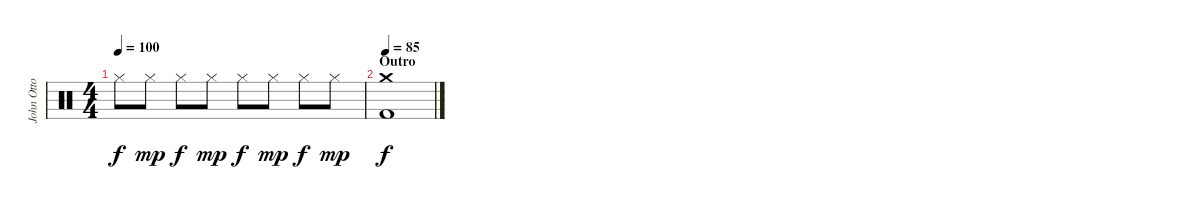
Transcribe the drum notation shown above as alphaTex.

\track ("John Otto - Drums" "John Otto ") {instrument percussion}
\staff {score}
\articulation defaults
\ts (4 4)
\tempo 100
\clef neutral
\ks c "Hi-Hat (closed)".8{dy f} "Hi-Hat (closed)".8{dy mp} "Hi-Hat (closed)".8{dy f} "Hi-Hat (closed)".8{dy mp} "Hi-Hat (closed)".8{dy f} "Hi-Hat (closed)".8{dy mp} "Hi-Hat (closed)".8{dy f} "Hi-Hat (closed)".8{dy mp}
|
\section ("" "Outro")
\tempo 85
("Crash medium (hit)" "Kick (hit) 2").1{dy f}
